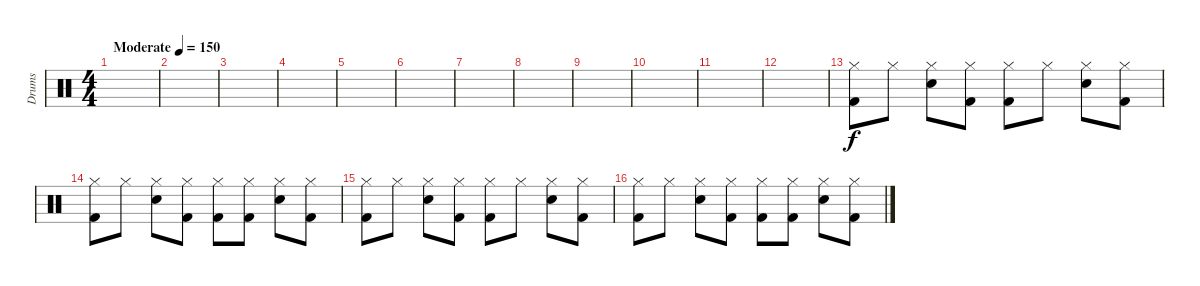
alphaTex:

\track ("Drums" "Drums") {instrument percussion}
\staff {score}
\articulation defaults
\ts (4 4)
\tempo (150 "Moderate")
\clef neutral
\ks c
|
|
|
|
|
|
|
|
|
|
|
|
("Hi-Hat (closed)" "Kick (hit) 2").8{volume 10} "Hi-Hat (closed)".8 ("Hi-Hat (closed)" "Snare (hit) 2").8 ("Hi-Hat (closed)" "Kick (hit) 2").8 ("Hi-Hat (closed)" "Kick (hit) 2").8 "Hi-Hat (closed)".8 ("Hi-Hat (closed)" "Snare (hit) 2").8 ("Hi-Hat (closed)" "Kick (hit) 2").8 |
("Hi-Hat (closed)" "Kick (hit) 2").8 "Hi-Hat (closed)".8 ("Hi-Hat (closed)" "Snare (hit) 2").8 ("Hi-Hat (closed)" "Kick (hit) 2").8 ("Hi-Hat (closed)" "Kick (hit) 2").8 ("Hi-Hat (closed)" "Kick (hit) 2").8 ("Hi-Hat (closed)" "Snare (hit) 2").8 ("Hi-Hat (closed)" "Kick (hit) 2").8 |
("Hi-Hat (closed)" "Kick (hit) 2").8 "Hi-Hat (closed)".8 ("Hi-Hat (closed)" "Snare (hit) 2").8 ("Hi-Hat (closed)" "Kick (hit) 2").8 ("Hi-Hat (closed)" "Kick (hit) 2").8 "Hi-Hat (closed)".8 ("Hi-Hat (closed)" "Snare (hit) 2").8 ("Hi-Hat (closed)" "Kick (hit) 2").8 |
("Hi-Hat (closed)" "Kick (hit) 2").8 "Hi-Hat (closed)".8 ("Hi-Hat (closed)" "Snare (hit) 2").8 ("Hi-Hat (closed)" "Kick (hit) 2").8 ("Hi-Hat (closed)" "Kick (hit) 2").8 ("Hi-Hat (closed)" "Kick (hit) 2").8 ("Hi-Hat (closed)" "Snare (hit) 2").8 ("Hi-Hat (closed)" "Kick (hit) 2").8
